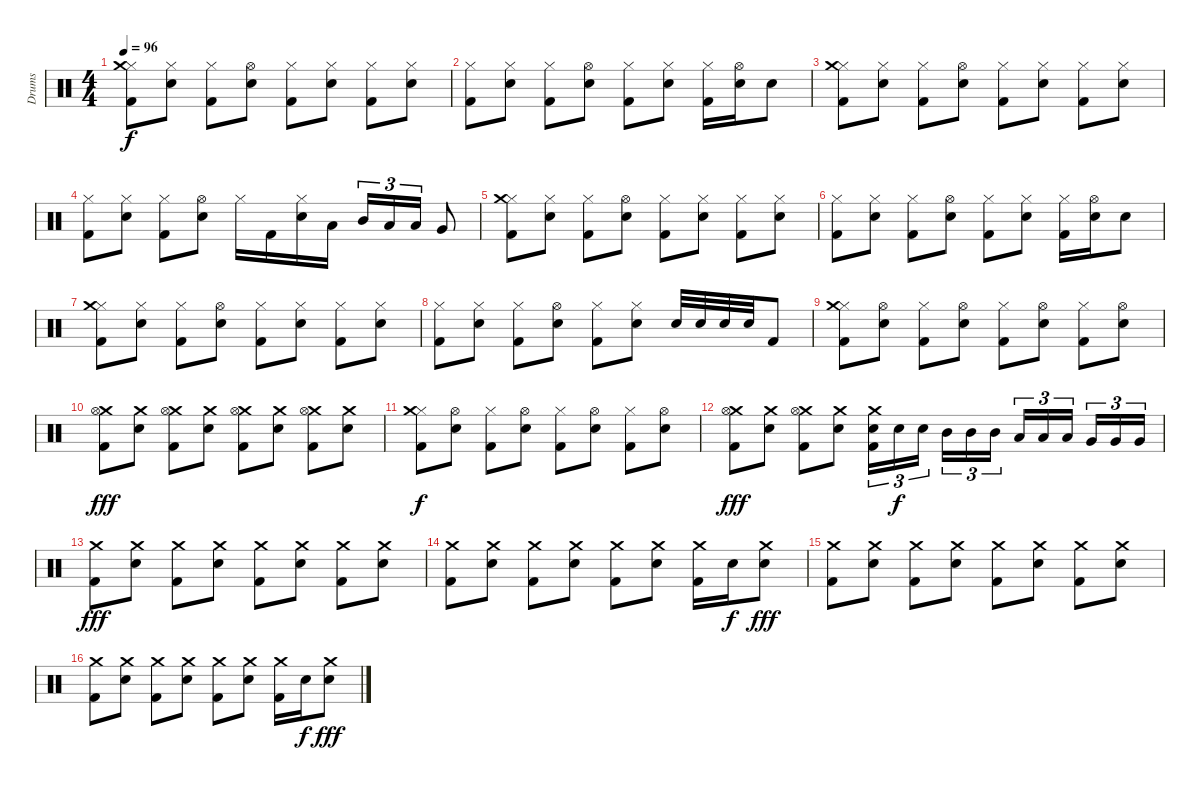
\track ("Drums" "Drums") {instrument percussion}
\staff {score}
\articulation defaults
\ts (4 4)
\tempo 96
\clef neutral
\ks c
("Hi-Hat (closed)" "Crash medium (hit)" "Kick (hit) 2").8{dy f} ("Hi-Hat (closed)" "Snare (hit) 2").8 ("Hi-Hat (closed)" "Kick (hit) 2").8 ("Hi-Hat (open)" "Snare (hit) 2").8 ("Hi-Hat (closed)" "Kick (hit) 2").8 ("Hi-Hat (closed)" "Snare (hit) 2").8 ("Hi-Hat (closed)" "Kick (hit) 2").8 ("Hi-Hat (closed)" "Snare (hit) 2").8 |
("Hi-Hat (closed)" "Kick (hit) 2").8 ("Hi-Hat (closed)" "Snare (hit) 2").8 ("Hi-Hat (closed)" "Kick (hit) 2").8 ("Hi-Hat (open)" "Snare (hit) 2").8 ("Hi-Hat (closed)" "Kick (hit) 2").8 ("Hi-Hat (closed)" "Snare (hit) 2").8 ("Hi-Hat (closed)" "Kick (hit) 2").16 ("Hi-Hat (open)" "Snare (hit) 2").16 "Snare (hit) 2".8 |
("Hi-Hat (closed)" "Crash medium (hit)" "Kick (hit) 2").8 ("Hi-Hat (closed)" "Snare (hit) 2").8 ("Hi-Hat (closed)" "Kick (hit) 2").8 ("Hi-Hat (open)" "Snare (hit) 2").8 ("Hi-Hat (closed)" "Kick (hit) 2").8 ("Hi-Hat (closed)" "Snare (hit) 2").8 ("Hi-Hat (closed)" "Kick (hit) 2").8 ("Hi-Hat (closed)" "Snare (hit) 2").8 |
("Hi-Hat (closed)" "Kick (hit) 2").8 ("Hi-Hat (closed)" "Snare (hit) 2").8 ("Hi-Hat (closed)" "Kick (hit) 2").8 ("Hi-Hat (open)" "Snare (hit) 2").8 "Hi-Hat (closed)".16 "Kick (hit) 2".16 ("Hi-Hat (closed)" "Snare (hit) 2").16 "Low Tom (hit)".16 "Mid Tom (hit)".16{tu (3 2)} "Low Tom (hit)".16{tu (3 2)} "Low Tom (hit)".16{tu (3 2)} "Very Low Tom (hit)".8 |
("Hi-Hat (closed)" "Crash medium (hit)" "Kick (hit) 2").8 ("Hi-Hat (closed)" "Snare (hit) 2").8 ("Hi-Hat (closed)" "Kick (hit) 2").8 ("Hi-Hat (open)" "Snare (hit) 2").8 ("Hi-Hat (closed)" "Kick (hit) 2").8 ("Hi-Hat (closed)" "Snare (hit) 2").8 ("Hi-Hat (closed)" "Kick (hit) 2").8 ("Hi-Hat (closed)" "Snare (hit) 2").8 |
("Hi-Hat (closed)" "Kick (hit) 2").8 ("Hi-Hat (closed)" "Snare (hit) 2").8 ("Hi-Hat (closed)" "Kick (hit) 2").8 ("Hi-Hat (open)" "Snare (hit) 2").8 ("Hi-Hat (closed)" "Kick (hit) 2").8 ("Hi-Hat (closed)" "Snare (hit) 2").8 ("Hi-Hat (closed)" "Kick (hit) 2").16 ("Hi-Hat (open)" "Snare (hit) 2").16 "Snare (hit) 2".8 |
("Hi-Hat (closed)" "Crash medium (hit)" "Kick (hit) 2").8 ("Hi-Hat (closed)" "Snare (hit) 2").8 ("Hi-Hat (closed)" "Kick (hit) 2").8 ("Hi-Hat (open)" "Snare (hit) 2").8 ("Hi-Hat (closed)" "Kick (hit) 2").8 ("Hi-Hat (closed)" "Snare (hit) 2").8 ("Hi-Hat (closed)" "Kick (hit) 2").8 ("Hi-Hat (closed)" "Snare (hit) 2").8 |
("Hi-Hat (closed)" "Kick (hit) 2").8 ("Hi-Hat (closed)" "Snare (hit) 2").8 ("Hi-Hat (closed)" "Kick (hit) 2").8 ("Hi-Hat (open)" "Snare (hit) 2").8 ("Hi-Hat (closed)" "Kick (hit) 2").8 ("Hi-Hat (closed)" "Snare (hit) 2").8 "Snare (hit) 2".32 "Snare (hit) 2".32 "Snare (hit) 2".32 "Snare (hit) 2".32 "Kick (hit) 2".8 |
("Hi-Hat (closed)" "Crash medium (hit)" "Kick (hit) 2").8 ("Hi-Hat (open)" "Snare (hit) 2").8 ("Hi-Hat (closed)" "Kick (hit) 2").8 ("Hi-Hat (open)" "Snare (hit) 2").8 ("Hi-Hat (closed)" "Kick (hit) 2").8 ("Hi-Hat (open)" "Snare (hit) 2").8 ("Hi-Hat (closed)" "Kick (hit) 2").8 ("Hi-Hat (open)" "Snare (hit) 2").8 |
("Crash medium (hit)" "Hi-Hat (open)" "Kick (hit) 2").8{dy fff} ("Crash medium (hit)" "Snare (hit) 2").8 ("Crash medium (hit)" "Hi-Hat (open)" "Kick (hit) 2").8 ("Crash medium (hit)" "Snare (hit) 2").8 ("Crash medium (hit)" "Hi-Hat (open)" "Kick (hit) 2").8 ("Crash medium (hit)" "Snare (hit) 2").8 ("Crash medium (hit)" "Hi-Hat (open)" "Kick (hit) 2").8 ("Crash medium (hit)" "Snare (hit) 2").8 |
("Hi-Hat (closed)" "Crash medium (hit)" "Kick (hit) 2").8{dy f} ("Hi-Hat (open)" "Snare (hit) 2").8 ("Hi-Hat (closed)" "Kick (hit) 2").8 ("Hi-Hat (open)" "Snare (hit) 2").8 ("Hi-Hat (closed)" "Kick (hit) 2").8 ("Hi-Hat (open)" "Snare (hit) 2").8 ("Hi-Hat (closed)" "Kick (hit) 2").8 ("Hi-Hat (open)" "Snare (hit) 2").8 |
("Crash medium (hit)" "Hi-Hat (open)" "Kick (hit) 2").8{dy fff} ("Crash medium (hit)" "Snare (hit) 2").8 ("Crash medium (hit)" "Hi-Hat (open)" "Kick (hit) 2").8 ("Crash medium (hit)" "Snare (hit) 2").8 ("Crash medium (hit)" "Snare (hit) 2" "Kick (hit) 2").16{tu (3 2)} "Snare (hit) 2".16{tu (3 2) dy f} "Snare (hit) 2".16{tu (3 2)} "Mid Tom (hit)".16{tu (3 2)} "Mid Tom (hit)".16{tu (3 2)} "Mid Tom (hit)".16{tu (3 2)} "Low Tom (hit)".16{tu (3 2)} "Low Tom (hit)".16{tu (3 2)} "Low Tom (hit)".16{tu (3 2)} "Very Low Tom (hit)".16{tu (3 2)} "Very Low Tom (hit)".16{tu (3 2)} "Very Low Tom (hit)".16{tu (3 2)} |
("Crash medium (hit)" "Kick (hit) 2").8{dy fff} ("Crash medium (hit)" "Snare (hit) 2").8 ("Crash medium (hit)" "Kick (hit) 2").8 ("Crash medium (hit)" "Snare (hit) 2").8 ("Crash medium (hit)" "Kick (hit) 2").8 ("Crash medium (hit)" "Snare (hit) 2").8 ("Crash medium (hit)" "Kick (hit) 2").8 ("Crash medium (hit)" "Snare (hit) 2").8 |
("Crash medium (hit)" "Kick (hit) 2").8 ("Crash medium (hit)" "Snare (hit) 2").8 ("Crash medium (hit)" "Kick (hit) 2").8 ("Crash medium (hit)" "Snare (hit) 2").8 ("Crash medium (hit)" "Kick (hit) 2").8 ("Crash medium (hit)" "Snare (hit) 2").8 ("Crash medium (hit)" "Kick (hit) 2").16 "Snare (hit) 2".16{dy f} ("Crash medium (hit)" "Snare (hit) 2").8{dy fff} |
("Crash medium (hit)" "Kick (hit) 2").8 ("Crash medium (hit)" "Snare (hit) 2").8 ("Crash medium (hit)" "Kick (hit) 2").8 ("Crash medium (hit)" "Snare (hit) 2").8 ("Crash medium (hit)" "Kick (hit) 2").8 ("Crash medium (hit)" "Snare (hit) 2").8 ("Crash medium (hit)" "Kick (hit) 2").8 ("Crash medium (hit)" "Snare (hit) 2").8 |
("Crash medium (hit)" "Kick (hit) 2").8 ("Crash medium (hit)" "Snare (hit) 2").8 ("Crash medium (hit)" "Kick (hit) 2").8 ("Crash medium (hit)" "Snare (hit) 2").8 ("Crash medium (hit)" "Kick (hit) 2").8 ("Crash medium (hit)" "Snare (hit) 2").8 ("Crash medium (hit)" "Kick (hit) 2").16 "Snare (hit) 2".16{dy f} ("Crash medium (hit)" "Snare (hit) 2").8{dy fff}
